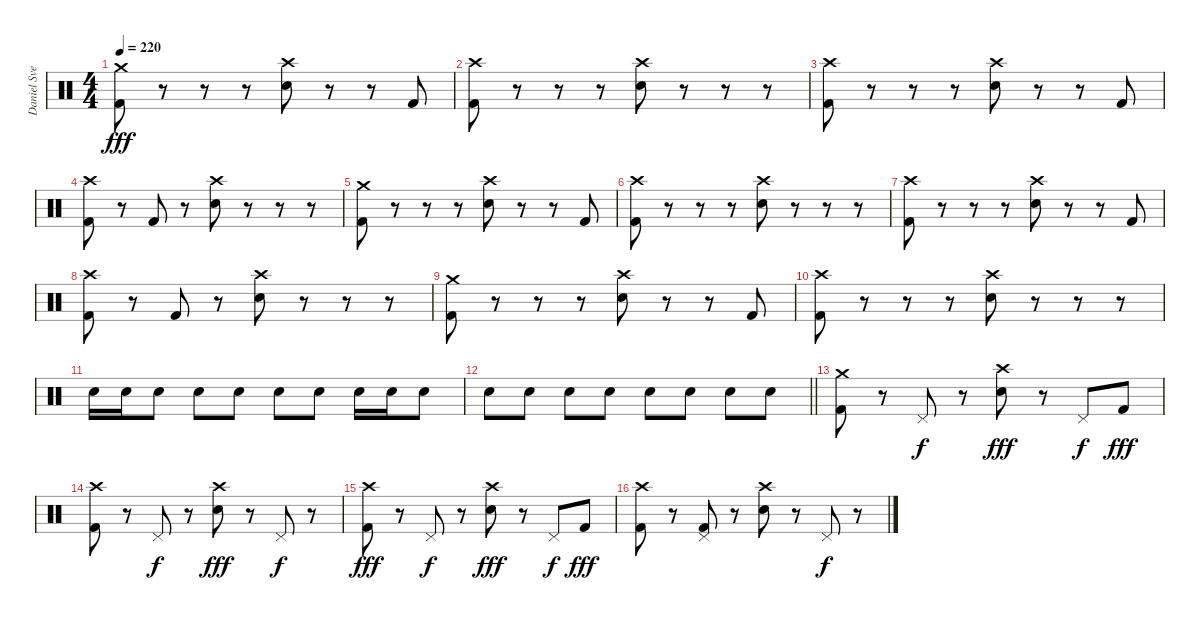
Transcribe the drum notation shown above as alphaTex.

\track ("Daniel Svensson" "Daniel Sve") {instrument percussion}
\staff {score}
\articulation defaults
\ts (4 4)
\tempo 220
\clef neutral
\ks c
("Crash medium (hit)" "Kick (hit) 2").8{dy fff} r.8 r.8 r.8 ("Crash high (hit)" "Electric Snare (hit)").8 r.8 r.8 "Kick (hit) 2".8 |
("Crash high (hit)" "Kick (hit) 2").8 r.8 r.8 r.8 ("Crash high (hit)" "Electric Snare (hit)").8 r.8 r.8 r.8 |
("Crash high (hit)" "Kick (hit) 2").8 r.8 r.8 r.8 ("Crash high (hit)" "Electric Snare (hit)").8 r.8 r.8 "Kick (hit) 2".8 |
("Crash high (hit)" "Kick (hit) 2").8 r.8 "Kick (hit) 2".8 r.8 ("Crash high (hit)" "Electric Snare (hit)").8 r.8 r.8 r.8 |
("Crash medium (hit)" "Kick (hit) 2").8 r.8 r.8 r.8 ("Crash high (hit)" "Electric Snare (hit)").8 r.8 r.8 "Kick (hit) 2".8 |
("Crash high (hit)" "Kick (hit) 2").8 r.8 r.8 r.8 ("Crash high (hit)" "Electric Snare (hit)").8 r.8 r.8 r.8 |
("Crash high (hit)" "Kick (hit) 2").8 r.8 r.8 r.8 ("Crash high (hit)" "Electric Snare (hit)").8 r.8 r.8 "Kick (hit) 2".8 |
("Crash high (hit)" "Kick (hit) 2").8 r.8 "Kick (hit) 2".8 r.8 ("Crash high (hit)" "Electric Snare (hit)").8 r.8 r.8 r.8 |
("Crash medium (hit)" "Kick (hit) 2").8 r.8 r.8 r.8 ("Crash high (hit)" "Electric Snare (hit)").8 r.8 r.8 "Kick (hit) 2".8 |
("Crash high (hit)" "Kick (hit) 2").8 r.8 r.8 r.8 ("Crash high (hit)" "Electric Snare (hit)").8 r.8 r.8 r.8 |
"Electric Snare (hit)".16 "Electric Snare (hit)".16 "Electric Snare (hit)".8 "Electric Snare (hit)".8 "Electric Snare (hit)".8 "Electric Snare (hit)".8 "Electric Snare (hit)".8 "Electric Snare (hit)".16 "Electric Snare (hit)".16 "Electric Snare (hit)".8 |
\barLineRight lightlight "Electric Snare (hit)".8 "Electric Snare (hit)".8 "Electric Snare (hit)".8 "Electric Snare (hit)".8 "Electric Snare (hit)".8 "Electric Snare (hit)".8 "Electric Snare (hit)".8 "Electric Snare (hit)".8
|
("Crash medium (hit)" "Kick (hit) 2").8 r.8 "Pedal Hi-Hat (hit)".8{dy f} r.8 ("Crash high (hit)" "Electric Snare (hit)").8{dy fff} r.8 "Pedal Hi-Hat (hit)".8{dy f} "Kick (hit) 2".8{dy fff} |
("Crash high (hit)" "Kick (hit) 2").8 r.8 "Pedal Hi-Hat (hit)".8{dy f} r.8 ("Crash high (hit)" "Electric Snare (hit)").8{dy fff} r.8 "Pedal Hi-Hat (hit)".8{dy f} r.8 |
("Crash high (hit)" "Kick (hit) 2").8{dy fff} r.8 "Pedal Hi-Hat (hit)".8{dy f} r.8 ("Crash high (hit)" "Electric Snare (hit)").8{dy fff} r.8 "Pedal Hi-Hat (hit)".8{dy f} "Kick (hit) 2".8{dy fff} |
("Crash high (hit)" "Kick (hit) 2").8 r.8 ("Pedal Hi-Hat (hit)" "Kick (hit) 2").8 r.8 ("Crash high (hit)" "Electric Snare (hit)").8 r.8 "Pedal Hi-Hat (hit)".8{dy f} r.8
